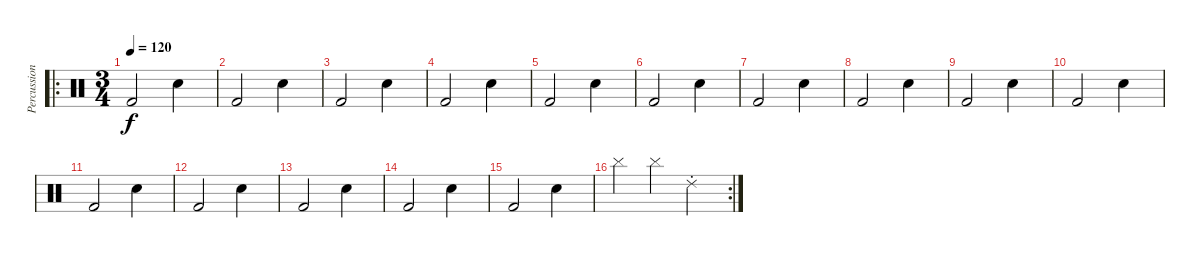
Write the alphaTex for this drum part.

\track ("Percussion" "Percussion") {instrument percussion}
\staff {score}
\articulation defaults
\ro
\ts (3 4)
\tempo 120
\clef neutral
\ks c "Kick (hit) 2".2{dy f} "Snare (hit) 2".4
|
"Kick (hit) 2".2 "Snare (hit) 2".4 |
"Kick (hit) 2".2 "Snare (hit) 2".4 |
"Kick (hit) 2".2 "Snare (hit) 2".4 |
"Kick (hit) 2".2 "Snare (hit) 2".4 |
"Kick (hit) 2".2 "Snare (hit) 2".4 |
"Kick (hit) 2".2 "Snare (hit) 2".4 |
"Kick (hit) 2".2 "Snare (hit) 2".4 |
"Kick (hit) 2".2 "Snare (hit) 2".4 |
"Kick (hit) 2".2 "Snare (hit) 2".4 |
"Kick (hit) 2".2 "Snare (hit) 2".4 |
"Kick (hit) 2".2 "Snare (hit) 2".4 |
"Kick (hit) 2".2 "Snare (hit) 2".4 |
"Kick (hit) 2".2 "Snare (hit) 2".4 |
"Kick (hit) 2".2 "Snare (hit) 2".4 |
\rc 2 "Cymbal (hit)".4 "Cymbal (hit)".4 "Ride (choke) 2".4
